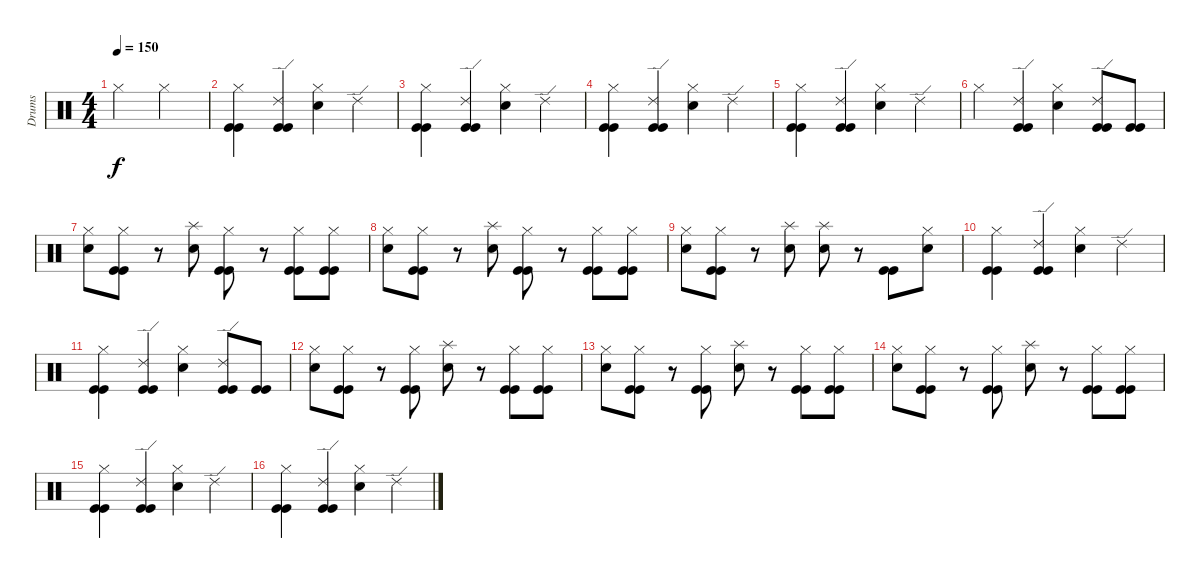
\track ("Drums" "Drums") {instrument percussion}
\staff {score}
\articulation defaults
\ts (4 4)
\tempo 150
\clef neutral
\ks c "Hi-Hat (closed)".2{dy f} "Hi-Hat (closed)".2
|
("Hi-Hat (closed)" "Kick (hit)" "Kick (hit)").4 ("Ride (edge) 2" "Kick (hit)" "Kick (hit)").4 ("Hi-Hat (closed)" "Snare (hit) 2").4 "Ride (edge) 2".4 |
("Hi-Hat (closed)" "Kick (hit)" "Kick (hit)").4 ("Ride (edge) 2" "Kick (hit)" "Kick (hit)").4 ("Hi-Hat (closed)" "Snare (hit) 2").4 "Ride (edge) 2".4 |
("Hi-Hat (closed)" "Kick (hit)" "Kick (hit)").4 ("Ride (edge) 2" "Kick (hit)" "Kick (hit)").4 ("Hi-Hat (closed)" "Snare (hit) 2").4 "Ride (edge) 2".4 |
("Hi-Hat (closed)" "Kick (hit)" "Kick (hit)").4 ("Ride (edge) 2" "Kick (hit)" "Kick (hit)").4 ("Hi-Hat (closed)" "Snare (hit) 2").4 "Ride (edge) 2".4 |
"Hi-Hat (closed)".4 ("Ride (edge) 2" "Kick (hit)" "Kick (hit)").4 ("Hi-Hat (closed)" "Snare (hit) 2").4 ("Ride (edge) 2" "Kick (hit)" "Kick (hit)").8 ("Kick (hit)" "Kick (hit)").8 |
("Hi-Hat (closed)" "Snare (hit) 2").8 ("Hi-Hat (closed)" "Kick (hit)" "Kick (hit)").8 r.8 ("Splash (hit)" "Snare (hit) 2").8 ("Hi-Hat (closed)" "Kick (hit)" "Kick (hit)").8 r.8 ("Hi-Hat (closed)" "Kick (hit)" "Kick (hit)").8 ("Hi-Hat (closed)" "Kick (hit)" "Kick (hit)").8 |
("Hi-Hat (closed)" "Snare (hit) 2").8 ("Hi-Hat (closed)" "Kick (hit)" "Kick (hit)").8 r.8 ("Splash (hit)" "Snare (hit) 2").8 ("Hi-Hat (closed)" "Kick (hit)" "Kick (hit)").8 r.8 ("Hi-Hat (closed)" "Kick (hit)" "Kick (hit)").8 ("Hi-Hat (closed)" "Kick (hit)" "Kick (hit)").8 |
("Hi-Hat (closed)" "Snare (hit) 2").8 ("Hi-Hat (closed)" "Kick (hit)" "Kick (hit)").8 r.8 ("Splash (hit)" "Snare (hit) 2").8 ("Splash (hit)" "Snare (hit) 2").8 r.8 ("Kick (hit)" "Kick (hit)").8 ("Hi-Hat (closed)" "Snare (hit) 2").8 |
("Hi-Hat (closed)" "Kick (hit)" "Kick (hit)").4 ("Ride (edge) 2" "Kick (hit)" "Kick (hit)").4 ("Hi-Hat (closed)" "Snare (hit) 2").4 "Ride (edge) 2".4 |
("Hi-Hat (closed)" "Kick (hit)" "Kick (hit)").4 ("Ride (edge) 2" "Kick (hit)" "Kick (hit)").4 ("Hi-Hat (closed)" "Snare (hit) 2").4 ("Ride (edge) 2" "Kick (hit)" "Kick (hit)").8 ("Kick (hit)" "Kick (hit)").8 |
("Hi-Hat (closed)" "Snare (hit) 2").8 ("Hi-Hat (closed)" "Kick (hit)" "Kick (hit)").8 r.8 ("Hi-Hat (closed)" "Kick (hit)" "Kick (hit)").8 ("Splash (hit)" "Snare (hit) 2").8 r.8 ("Hi-Hat (closed)" "Kick (hit)" "Kick (hit)").8 ("Hi-Hat (closed)" "Kick (hit)" "Kick (hit)").8 |
("Hi-Hat (closed)" "Snare (hit) 2").8 ("Hi-Hat (closed)" "Kick (hit)" "Kick (hit)").8 r.8 ("Hi-Hat (closed)" "Kick (hit)" "Kick (hit)").8 ("Splash (hit)" "Snare (hit) 2").8 r.8 ("Hi-Hat (closed)" "Kick (hit)" "Kick (hit)").8 ("Hi-Hat (closed)" "Kick (hit)" "Kick (hit)").8 |
("Hi-Hat (closed)" "Snare (hit) 2").8 ("Hi-Hat (closed)" "Kick (hit)" "Kick (hit)").8 r.8 ("Hi-Hat (closed)" "Kick (hit)" "Kick (hit)").8 ("Splash (hit)" "Snare (hit) 2").8 r.8 ("Hi-Hat (closed)" "Kick (hit)" "Kick (hit)").8 ("Hi-Hat (closed)" "Kick (hit)" "Kick (hit)").8 |
("Hi-Hat (closed)" "Kick (hit)" "Kick (hit)").4 ("Ride (edge) 2" "Kick (hit)" "Kick (hit)").4 ("Hi-Hat (closed)" "Snare (hit) 2").4 "Ride (edge) 2".4 |
("Hi-Hat (closed)" "Kick (hit)" "Kick (hit)").4 ("Ride (edge) 2" "Kick (hit)" "Kick (hit)").4 ("Hi-Hat (closed)" "Snare (hit) 2").4 "Ride (edge) 2".4
